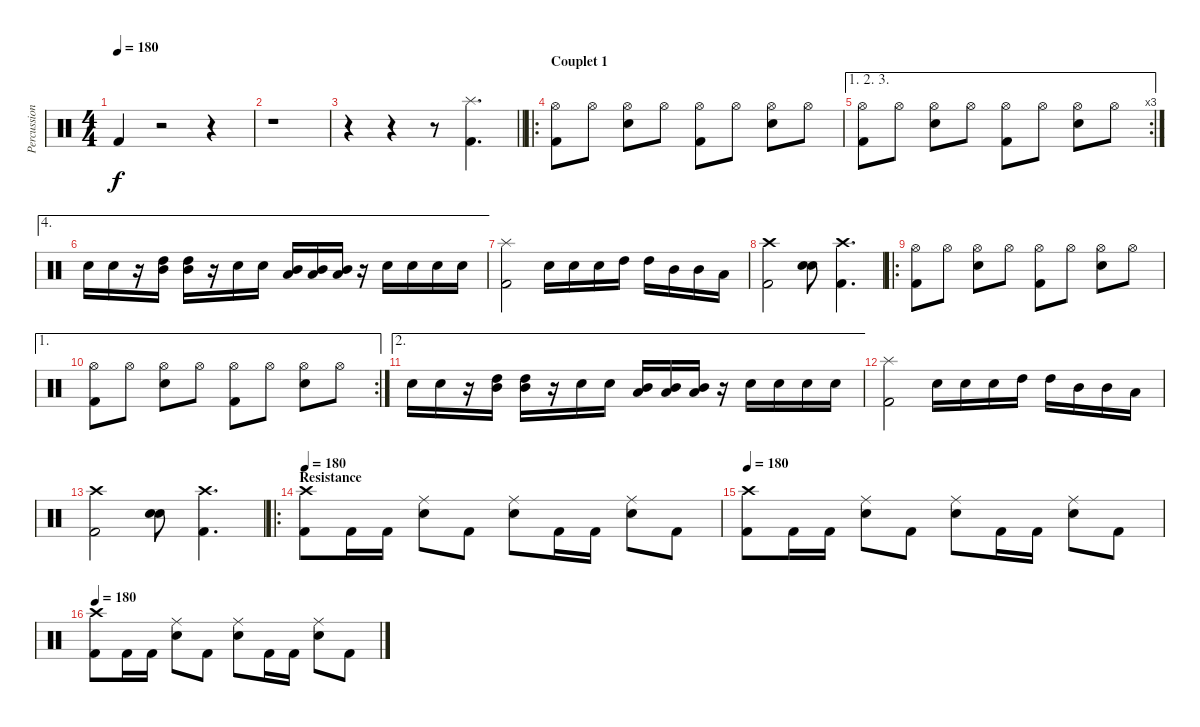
\track ("Percussions" "Percussion") {instrument percussion}
\staff {score}
\articulation defaults
\ts (4 4)
\tempo 180
\clef neutral
\ks c "Kick (hit) 2".4{dy f}
r.2 r.4 |
r.1 |
\barLineRight lightlight
r.4 r.4 r.8 ("Splash (hit)" "Kick (hit) 2").4{d} |
\ro
\section ("" "Couplet 1")
("Hi-Hat (open)" "Kick (hit) 2").8{volume 13} "Hi-Hat (open)".8{volume 10} ("Hi-Hat (open)" "Electric Snare (hit)").8{volume 13} "Hi-Hat (open)".8{volume 10} ("Hi-Hat (open)" "Kick (hit) 2").8{volume 13} "Hi-Hat (open)".8{volume 12} ("Hi-Hat (open)" "Electric Snare (hit)").8{volume 13} "Hi-Hat (open)".8{volume 10} |
\ae (1 2 3)
\rc 3
("Hi-Hat (open)" "Kick (hit) 2").8{volume 13} "Hi-Hat (open)".8{volume 10} ("Hi-Hat (open)" "Electric Snare (hit)").8{volume 13} "Hi-Hat (open)".8{volume 10} ("Hi-Hat (open)" "Kick (hit) 2").8{volume 13} "Hi-Hat (open)".8{volume 12} ("Hi-Hat (open)" "Electric Snare (hit)").8{volume 13} "Hi-Hat (open)".8{volume 10} |
\ae 4 "Electric Snare (hit)".16 "Electric Snare (hit)".16
r.16 ("Mid Tom (hit)" "High Tom (hit)").16 ("Mid Tom (hit)" "High Tom (hit)").16 r.16 "Electric Snare (hit)".16 "Electric Snare (hit)".16 ("Mid Tom (hit)" "Low Tom (hit)").16 ("Mid Tom (hit)" "Low Tom (hit)").16 ("Mid Tom (hit)" "Low Tom (hit)").16 r.16 "Electric Snare (hit)".16 "Electric Snare (hit)".16 "Electric Snare (hit)".16 "Electric Snare (hit)".16 |
("Splash (hit)" "Kick (hit) 2").2 "Electric Snare (hit)".16 "Electric Snare (hit)".16 "Electric Snare (hit)".16 "High Tom (hit)".16 "High Tom (hit)".16 "Mid Tom (hit)".16 "Mid Tom (hit)".16 "Low Tom (hit)".16 |
("Crash high (hit)" "Kick (hit) 2").2 ("Electric Snare (hit)" "Electric Snare (hit)").8{bd 240} ("Crash high (hit)" "Kick (hit) 2").4{d} |
\ro
("Hi-Hat (open)" "Kick (hit) 2").8{volume 13} "Hi-Hat (open)".8{volume 10} ("Hi-Hat (open)" "Electric Snare (hit)").8{volume 13} "Hi-Hat (open)".8{volume 10} ("Hi-Hat (open)" "Kick (hit) 2").8{volume 13} "Hi-Hat (open)".8{volume 12} ("Hi-Hat (open)" "Electric Snare (hit)").8{volume 13} "Hi-Hat (open)".8{volume 10} |
\ae 1
\rc 2
("Hi-Hat (open)" "Kick (hit) 2").8{volume 13} "Hi-Hat (open)".8{volume 10} ("Hi-Hat (open)" "Electric Snare (hit)").8{volume 13} "Hi-Hat (open)".8{volume 10} ("Hi-Hat (open)" "Kick (hit) 2").8{volume 13} "Hi-Hat (open)".8{volume 12} ("Hi-Hat (open)" "Electric Snare (hit)").8{volume 13} "Hi-Hat (open)".8{volume 10} |
\ae 2 "Electric Snare (hit)".16 "Electric Snare (hit)".16
r.16 ("Mid Tom (hit)" "High Tom (hit)").16 ("Mid Tom (hit)" "High Tom (hit)").16 r.16 "Electric Snare (hit)".16 "Electric Snare (hit)".16 ("Mid Tom (hit)" "Low Tom (hit)").16 ("Mid Tom (hit)" "Low Tom (hit)").16 ("Mid Tom (hit)" "Low Tom (hit)").16 r.16 "Electric Snare (hit)".16 "Electric Snare (hit)".16 "Electric Snare (hit)".16 "Electric Snare (hit)".16 |
("Splash (hit)" "Kick (hit) 2").2 "Electric Snare (hit)".16 "Electric Snare (hit)".16 "Electric Snare (hit)".16 "High Tom (hit)".16 "High Tom (hit)".16 "Mid Tom (hit)".16 "Mid Tom (hit)".16 "Low Tom (hit)".16 |
("Crash high (hit)" "Kick (hit) 2").2 ("Electric Snare (hit)" "Electric Snare (hit)").8{bd 240} ("Crash high (hit)" "Kick (hit) 2").4{d} |
\ro
\section ("" "Resistance")
\tempo 180
("Crash high (hit)" "Kick (hit) 2").8 "Kick (hit) 2".16 "Kick (hit) 2".16 ("Ride (middle)" "Electric Snare (hit)").8 "Kick (hit) 2".8 ("Ride (middle)" "Electric Snare (hit)").8 "Kick (hit) 2".16 "Kick (hit) 2".16 ("Ride (middle)" "Electric Snare (hit)").8 "Kick (hit) 2".8 |
\tempo 180
("Crash high (hit)" "Kick (hit) 2").8 "Kick (hit) 2".16 "Kick (hit) 2".16 ("Ride (middle)" "Electric Snare (hit)").8 "Kick (hit) 2".8 ("Ride (middle)" "Electric Snare (hit)").8 "Kick (hit) 2".16 "Kick (hit) 2".16 ("Ride (middle)" "Electric Snare (hit)").8 "Kick (hit) 2".8 |
\tempo 180
("Crash high (hit)" "Kick (hit) 2").8 "Kick (hit) 2".16 "Kick (hit) 2".16 ("Ride (middle)" "Electric Snare (hit)").8 "Kick (hit) 2".8 ("Ride (middle)" "Electric Snare (hit)").8 "Kick (hit) 2".16 "Kick (hit) 2".16 ("Ride (middle)" "Electric Snare (hit)").8 "Kick (hit) 2".8
